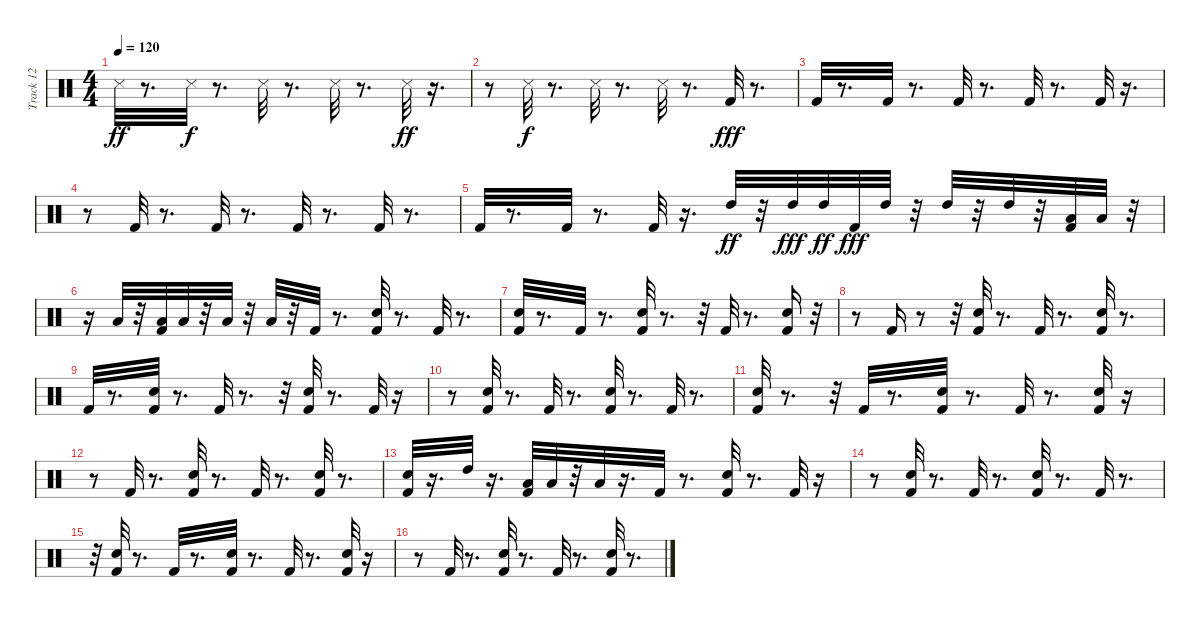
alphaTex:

\track ("Track 12" "Track 12") {instrument percussion}
\staff {score}
\articulation defaults
\ts (4 4)
\tempo 120
\clef neutral
\ks c "Snare (side stick) 3".32{dy ff}
r.8{d} "Snare (side stick) 3".32{dy f} r.8{d} "Snare (side stick) 3".32 r.8{d} "Snare (side stick) 3".32 r.8{d} "Snare (side stick) 3".32{dy ff} r.16{d} |
r.8 "Snare (side stick) 3".32{dy f} r.8{d} "Snare (side stick) 3".32 r.8{d} "Snare (side stick) 3".32 r.8{d} "Kick (hit) 2".32{dy fff} r.8{d} |
"Kick (hit) 2".32{volume 11} r.8{d} "Kick (hit) 2".32 r.8{d} "Kick (hit) 2".32 r.8{d} "Kick (hit) 2".32 r.8{d} "Kick (hit) 2".32 r.16{d} |
r.8 "Kick (hit) 2".32 r.8{d} "Kick (hit) 2".32 r.8{d} "Kick (hit) 2".32 r.8{d} "Kick (hit) 2".32 r.8{d} |
"Kick (hit) 2".32 r.8{d} "Kick (hit) 2".32 r.8{d} "Kick (hit) 2".32 r.16{d} "High Tom (hit)".32{dy ff} r.32 "High Tom (hit)".32{dy fff} "High Tom (hit)".32{dy ff} "Kick (hit) 2".32{dy fff} "High Tom (hit)".32 r.32 "High Tom (hit)".32 r.32 "High Tom (hit)".32 r.32 ("Low Tom (hit)" "Kick (hit) 2").32 "Low Tom (hit)".32 r.32 |
r.16 "Low Tom (hit)".32 r.32 ("Low Tom (hit)" "Kick (hit) 2").32 "Low Floor Tom (hit)".32 r.32 "Low Floor Tom (hit)".32 r.32 "Low Floor Tom (hit)".32 r.32 "Kick (hit) 2".32 r.8{d} ("Kick (hit) 2" "Electric Snare (hit)").32 r.8{d} "Kick (hit) 2".32 r.8{d} |
("Electric Snare (hit)" "Kick (hit) 2").32 r.8{d} "Kick (hit) 2".32 r.8{d} ("Electric Snare (hit)" "Kick (hit) 2").32 r.8{d} r.32 "Kick (hit) 2".32 r.8{d} ("Electric Snare (hit)" "Kick (hit) 2").16 r.32 |
r.8 "Kick (hit) 2".16 r.8 r.32 ("Electric Snare (hit)" "Kick (hit) 2").32 r.8{d} "Kick (hit) 2".32 r.8{d} ("Electric Snare (hit)" "Kick (hit) 2").32 r.8{d} |
"Kick (hit) 2".32 r.8{d} ("Electric Snare (hit)" "Kick (hit) 2").32 r.8{d} "Kick (hit) 2".32 r.8{d} r.32 ("Electric Snare (hit)" "Kick (hit) 2").32 r.8{d} "Kick (hit) 2".32 r.16 |
r.8 ("Electric Snare (hit)" "Kick (hit) 2").32 r.8{d} "Kick (hit) 2".32 r.8{d} ("Electric Snare (hit)" "Kick (hit) 2").32 r.8{d} "Kick (hit) 2".32 r.8{d} |
("Kick (hit) 2" "Electric Snare (hit)").32 r.8{d} r.32 "Kick (hit) 2".32 r.8{d} ("Electric Snare (hit)" "Kick (hit) 2").32 r.8{d} "Kick (hit) 2".32 r.8{d} ("Kick (hit) 2" "Electric Snare (hit)").32 r.16 |
r.8 "Kick (hit) 2".32 r.8{d} ("Electric Snare (hit)" "Kick (hit) 2").32 r.8{d} "Kick (hit) 2".32 r.8{d} ("Kick (hit) 2" "Electric Snare (hit)").32 r.8{d} |
("Snare (hit) 2" "Kick (hit) 2").32 r.16{d} "High Tom (hit)".32 r.16{d} ("Low Tom (hit)" "Kick (hit) 2").32 "Low Tom (hit)".32 r.32 "Low Floor Tom (hit)".32 r.16{d} "Kick (hit) 2".32 r.8{d} ("Electric Snare (hit)" "Kick (hit) 2").32 r.8{d} "Kick (hit) 2".32 r.16 |
r.8 ("Electric Snare (hit)" "Kick (hit) 2").32 r.8{d} "Kick (hit) 2".32 r.8{d} ("Kick (hit) 2" "Electric Snare (hit)").32 r.8{d} "Kick (hit) 2".32 r.8{d} |
r.32 ("Electric Snare (hit)" "Kick (hit) 2").32 r.8{d} "Kick (hit) 2".32 r.8{d} ("Electric Snare (hit)" "Kick (hit) 2").32 r.8{d} "Kick (hit) 2".32 r.8{d} ("Electric Snare (hit)" "Kick (hit) 2").32 r.16 |
r.8 "Kick (hit) 2".32 r.8{d} ("Electric Snare (hit)" "Kick (hit) 2").32 r.8{d} "Kick (hit) 2".32 r.8{d} ("Electric Snare (hit)" "Kick (hit) 2").32 r.8{d}
